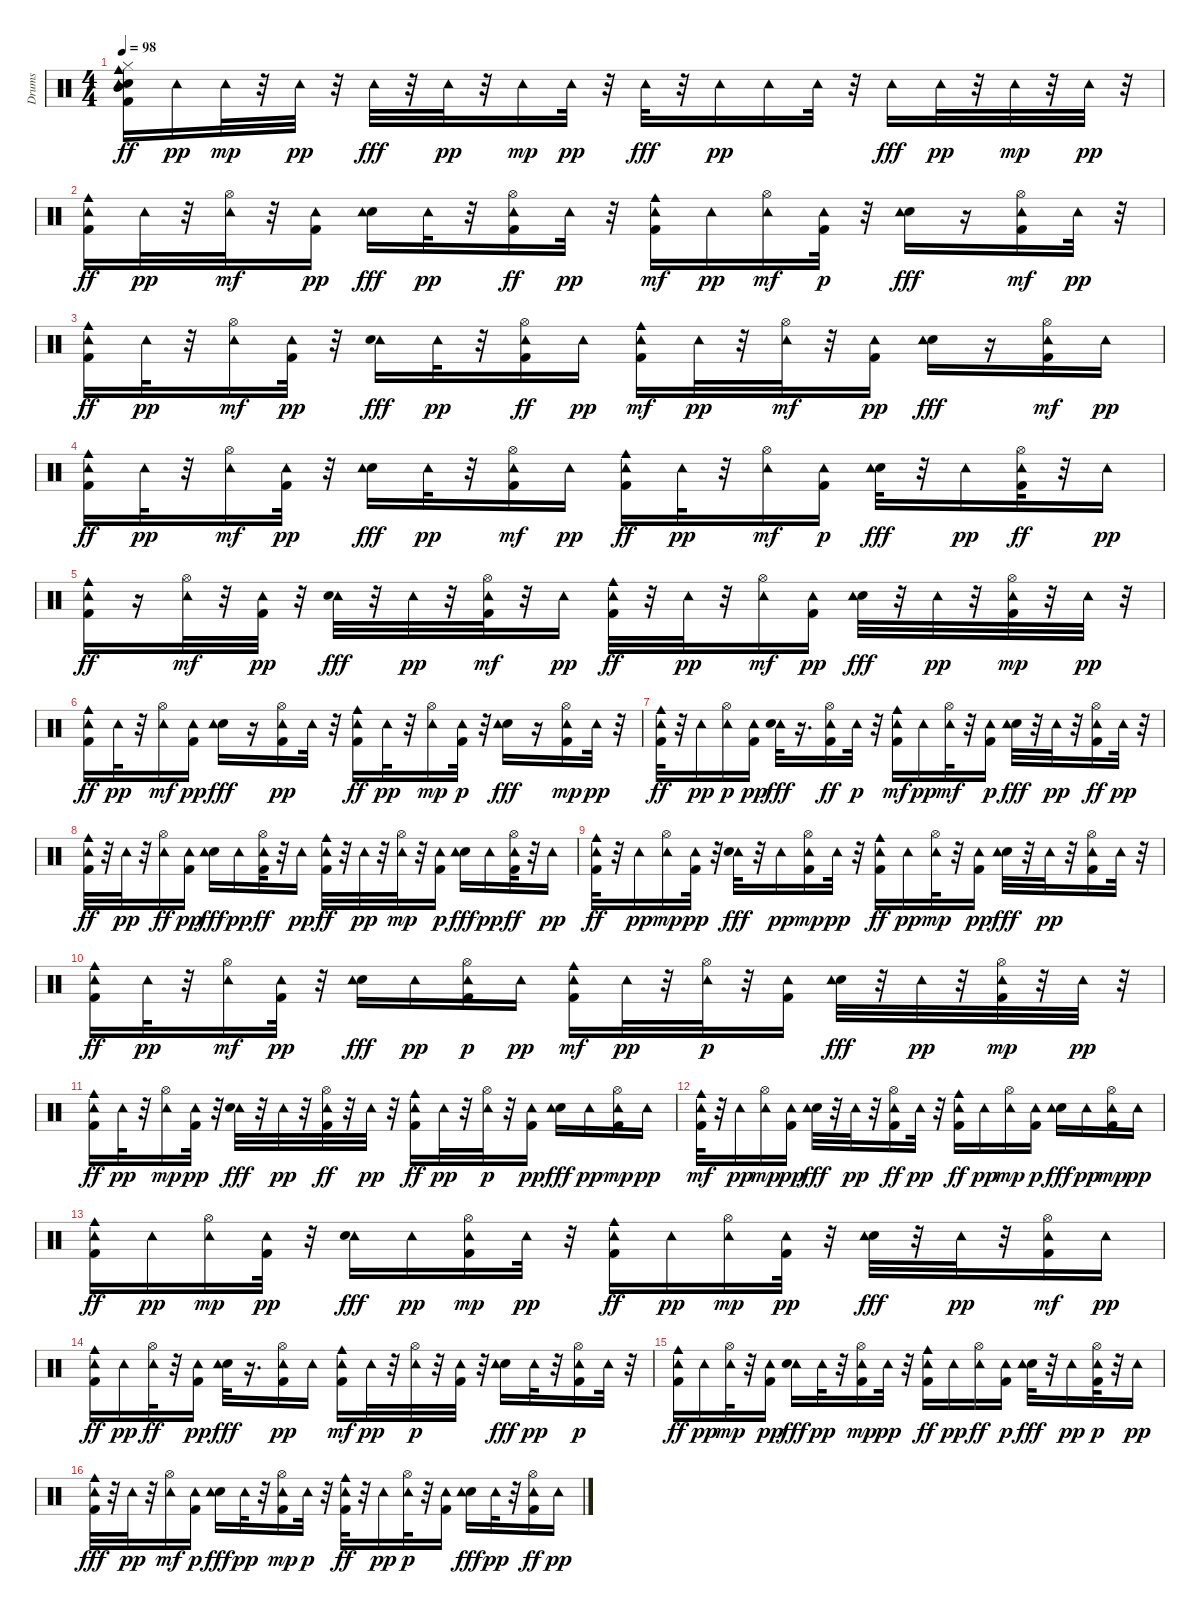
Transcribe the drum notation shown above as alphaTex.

\track ("Drums" "Drums") {instrument percussion}
\staff {score}
\articulation defaults
\ts (4 4)
\tempo 98
\clef neutral
\ks c
("Electric Snare (hit)" "Tambourine (hit)" "Kick (hit) 2" "Hi-Hat (closed)" "Cowbell medium (hit)" "Mid Tom (hit)").16{dy ff} "Tambourine (hit)".16{dy pp} "Tambourine (hit)".32{dy mp} r.32 "Tambourine (hit)".32{dy pp} r.32 "Tambourine (hit)".32{dy fff} r.32 "Tambourine (hit)".32{dy pp} r.32 "Tambourine (hit)".16{dy mp} "Tambourine (hit)".32{dy pp} r.32 "Tambourine (hit)".32{dy fff} r.32 "Tambourine (hit)".16{dy pp} "Tambourine (hit)".16 "Tambourine (hit)".32 r.32 "Tambourine (hit)".16{dy fff} "Tambourine (hit)".32{dy pp} r.32 "Tambourine (hit)".32{dy mp} r.32 "Tambourine (hit)".32{dy pp} r.32 |
("Tambourine (hit)" "Kick (hit) 2" "Cowbell medium (hit)").16{dy ff} "Tambourine (hit)".32{dy pp} r.32 ("Tambourine (hit)" "Hi-Hat (open)").32{dy mf} r.32 ("Kick (hit) 2" "Tambourine (hit)").16{dy pp} ("Electric Snare (hit)" "Tambourine (hit)").16{dy fff} "Tambourine (hit)".32{dy pp} r.32 ("Kick (hit) 2" "Tambourine (hit)" "Hi-Hat (open)").16{dy ff} "Tambourine (hit)".32{dy pp} r.32 ("Tambourine (hit)" "Kick (hit) 2" "Cowbell medium (hit)").16{dy mf} "Tambourine (hit)".16{dy pp} ("Hi-Hat (open)" "Tambourine (hit)").16{dy mf} ("Kick (hit) 2" "Tambourine (hit)").32{dy p} r.32 ("Electric Snare (hit)" "Tambourine (hit)").16{dy fff} r.16 ("Kick (hit) 2" "Hi-Hat (open)" "Tambourine (hit)").16{dy mf} "Tambourine (hit)".32{dy pp} r.32 |
("Tambourine (hit)" "Cowbell medium (hit)" "Kick (hit) 2").16{dy ff} "Tambourine (hit)".32{dy pp} r.32 ("Tambourine (hit)" "Hi-Hat (open)").16{dy mf} ("Kick (hit) 2" "Tambourine (hit)").32{dy pp} r.32 ("Tambourine (hit)" "Electric Snare (hit)").16{dy fff} "Tambourine (hit)".32{dy pp} r.32 ("Kick (hit) 2" "Tambourine (hit)" "Hi-Hat (open)").16{dy ff} "Tambourine (hit)".16{dy pp} ("Tambourine (hit)" "Kick (hit) 2" "Cowbell medium (hit)").16{dy mf} "Tambourine (hit)".32{dy pp} r.32 ("Tambourine (hit)" "Hi-Hat (open)").32{dy mf} r.32 ("Kick (hit) 2" "Tambourine (hit)").16{dy pp} ("Electric Snare (hit)" "Tambourine (hit)").16{dy fff} r.16 ("Kick (hit) 2" "Tambourine (hit)" "Hi-Hat (open)").16{dy mf} "Tambourine (hit)".16{dy pp} |
("Tambourine (hit)" "Kick (hit) 2" "Cowbell medium (hit)").16{dy ff} "Tambourine (hit)".32{dy pp} r.32 ("Tambourine (hit)" "Hi-Hat (open)").16{dy mf} ("Kick (hit) 2" "Tambourine (hit)").32{dy pp} r.32 ("Electric Snare (hit)" "Tambourine (hit)").16{dy fff} "Tambourine (hit)".32{dy pp} r.32 ("Kick (hit) 2" "Tambourine (hit)" "Hi-Hat (open)").16{dy mf} "Tambourine (hit)".16{dy pp} ("Tambourine (hit)" "Kick (hit) 2" "Cowbell medium (hit)").16{dy ff} "Tambourine (hit)".32{dy pp} r.32 ("Hi-Hat (open)" "Tambourine (hit)").16{dy mf} ("Kick (hit) 2" "Tambourine (hit)").16{dy p} ("Electric Snare (hit)" "Tambourine (hit)").32{dy fff} r.32 "Tambourine (hit)".16{dy pp} ("Kick (hit) 2" "Tambourine (hit)" "Hi-Hat (open)").32{dy ff} r.32 "Tambourine (hit)".16{dy pp} |
("Tambourine (hit)" "Kick (hit) 2" "Cowbell medium (hit)").16{dy ff} r.16 ("Tambourine (hit)" "Hi-Hat (open)").32{dy mf} r.32 ("Kick (hit) 2" "Tambourine (hit)").32{dy pp} r.32 ("Tambourine (hit)" "Electric Snare (hit)").32{dy fff} r.32 "Tambourine (hit)".32{dy pp} r.32 ("Kick (hit) 2" "Tambourine (hit)" "Hi-Hat (open)").32{dy mf} r.32 "Tambourine (hit)".16{dy pp} ("Tambourine (hit)" "Kick (hit) 2" "Cowbell medium (hit)").32{dy ff} r.32 "Tambourine (hit)".32{dy pp} r.32 ("Tambourine (hit)" "Hi-Hat (open)").16{dy mf} ("Kick (hit) 2" "Tambourine (hit)").16{dy pp} ("Electric Snare (hit)" "Tambourine (hit)").32{dy fff} r.32 "Tambourine (hit)".32{dy pp} r.32 ("Kick (hit) 2" "Tambourine (hit)" "Hi-Hat (open)").32{dy mp} r.32 "Tambourine (hit)".32{dy pp} r.32 |
("Tambourine (hit)" "Kick (hit) 2" "Cowbell medium (hit)").16{dy ff} "Tambourine (hit)".32{dy pp} r.32 ("Tambourine (hit)" "Hi-Hat (open)").16{dy mf} ("Kick (hit) 2" "Tambourine (hit)").16{dy pp} ("Electric Snare (hit)" "Tambourine (hit)").16{dy fff} r.16 ("Kick (hit) 2" "Tambourine (hit)" "Hi-Hat (open)").16{dy pp} "Tambourine (hit)".32 r.32 ("Tambourine (hit)" "Kick (hit) 2" "Cowbell medium (hit)").16{dy ff} "Tambourine (hit)".32{dy pp} r.32 ("Hi-Hat (open)" "Tambourine (hit)").16{dy mp} ("Kick (hit) 2" "Tambourine (hit)").32{dy p} r.32 ("Electric Snare (hit)" "Tambourine (hit)").16{dy fff} r.16 ("Kick (hit) 2" "Hi-Hat (open)" "Tambourine (hit)").16{dy mp} "Tambourine (hit)".32{dy pp} r.32 |
("Tambourine (hit)" "Kick (hit) 2" "Cowbell medium (hit)").32{dy ff} r.32 "Tambourine (hit)".16{dy pp} ("Tambourine (hit)" "Hi-Hat (open)").16{dy p} ("Kick (hit) 2" "Tambourine (hit)").16{dy pp} ("Tambourine (hit)" "Electric Snare (hit)").32{dy fff} r.16{d} ("Kick (hit) 2" "Tambourine (hit)" "Hi-Hat (open)").16{dy ff} "Tambourine (hit)".32{dy p} r.32 ("Tambourine (hit)" "Kick (hit) 2" "Cowbell medium (hit)").16{dy mf} "Tambourine (hit)".16{dy pp} ("Tambourine (hit)" "Hi-Hat (open)").32{dy mf} r.32 ("Kick (hit) 2" "Tambourine (hit)").16{dy p} ("Electric Snare (hit)" "Tambourine (hit)").32{dy fff} r.32 "Tambourine (hit)".32{dy pp} r.32 ("Kick (hit) 2" "Tambourine (hit)" "Hi-Hat (open)").16{dy ff} "Tambourine (hit)".32{dy pp} r.32 |
("Tambourine (hit)" "Kick (hit) 2" "Cowbell medium (hit)").32{dy ff} r.32 "Tambourine (hit)".32{dy pp} r.32 ("Tambourine (hit)" "Hi-Hat (open)").16{dy ff} ("Kick (hit) 2" "Tambourine (hit)").16{dy pp} ("Electric Snare (hit)" "Tambourine (hit)").16{dy fff} "Tambourine (hit)".16{dy pp} ("Kick (hit) 2" "Tambourine (hit)" "Hi-Hat (open)").32{dy ff} r.32 "Tambourine (hit)".16{dy pp} ("Tambourine (hit)" "Kick (hit) 2" "Cowbell medium (hit)").32{dy ff} r.32 "Tambourine (hit)".32{dy pp} r.32 ("Hi-Hat (open)" "Tambourine (hit)").32{dy mp} r.32 ("Kick (hit) 2" "Tambourine (hit)").16{dy p} ("Electric Snare (hit)" "Tambourine (hit)").16{dy fff} "Tambourine (hit)".16{dy pp} ("Kick (hit) 2" "Tambourine (hit)" "Hi-Hat (open)").32{dy ff} r.32 "Tambourine (hit)".16{dy pp} |
("Tambourine (hit)" "Kick (hit) 2" "Cowbell medium (hit)").32{dy ff} r.32 "Tambourine (hit)".16{dy pp} ("Tambourine (hit)" "Hi-Hat (open)").16{dy mp} ("Kick (hit) 2" "Tambourine (hit)").32{dy pp} r.32 ("Tambourine (hit)" "Electric Snare (hit)").32{dy fff} r.32 "Tambourine (hit)".16{dy pp} ("Kick (hit) 2" "Tambourine (hit)" "Hi-Hat (open)").16{dy mp} "Tambourine (hit)".32{dy pp} r.32 ("Tambourine (hit)" "Kick (hit) 2" "Cowbell medium (hit)").16{dy ff} "Tambourine (hit)".16{dy pp} ("Tambourine (hit)" "Hi-Hat (open)").32{dy mp} r.32 ("Kick (hit) 2" "Tambourine (hit)").16{dy pp} ("Electric Snare (hit)" "Tambourine (hit)").32{dy fff} r.32 "Tambourine (hit)".32{dy pp} r.32 ("Kick (hit) 2" "Tambourine (hit)" "Hi-Hat (open)").16 "Tambourine (hit)".32 r.32 |
("Tambourine (hit)" "Kick (hit) 2" "Cowbell medium (hit)").16{dy ff} "Tambourine (hit)".32{dy pp} r.32 ("Tambourine (hit)" "Hi-Hat (open)").16{dy mf} ("Kick (hit) 2" "Tambourine (hit)").32{dy pp} r.32 ("Electric Snare (hit)" "Tambourine (hit)").16{dy fff} "Tambourine (hit)".16{dy pp} ("Kick (hit) 2" "Tambourine (hit)" "Hi-Hat (open)").16{dy p} "Tambourine (hit)".16{dy pp} ("Tambourine (hit)" "Kick (hit) 2" "Cowbell medium (hit)").16{dy mf} "Tambourine (hit)".32{dy pp} r.32 ("Hi-Hat (open)" "Tambourine (hit)").32{dy p} r.32 ("Kick (hit) 2" "Tambourine (hit)").16 ("Electric Snare (hit)" "Tambourine (hit)").32{dy fff} r.32 "Tambourine (hit)".32{dy pp} r.32 ("Kick (hit) 2" "Hi-Hat (open)" "Tambourine (hit)").32{dy mp} r.32 "Tambourine (hit)".32{dy pp} r.32 |
("Tambourine (hit)" "Kick (hit) 2" "Cowbell medium (hit)").16{dy ff} "Tambourine (hit)".32{dy pp} r.32 ("Tambourine (hit)" "Hi-Hat (open)").16{dy mp} ("Kick (hit) 2" "Tambourine (hit)").32{dy pp} r.32 ("Tambourine (hit)" "Electric Snare (hit)").32{dy fff} r.32 "Tambourine (hit)".32{dy pp} r.32 ("Kick (hit) 2" "Tambourine (hit)" "Hi-Hat (open)").32{dy ff} r.32 "Tambourine (hit)".32{dy pp} r.32 ("Tambourine (hit)" "Kick (hit) 2" "Cowbell medium (hit)").16{dy ff} "Tambourine (hit)".32{dy pp} r.32 ("Tambourine (hit)" "Hi-Hat (open)").32{dy p} r.32 ("Kick (hit) 2" "Tambourine (hit)").16{dy pp} ("Electric Snare (hit)" "Tambourine (hit)").16{dy fff} "Tambourine (hit)".16{dy pp} ("Kick (hit) 2" "Hi-Hat (open)" "Tambourine (hit)").16{dy mp} "Tambourine (hit)".16{dy pp} |
("Tambourine (hit)" "Kick (hit) 2" "Cowbell medium (hit)").32{dy mf} r.32 "Tambourine (hit)".16{dy pp} ("Tambourine (hit)" "Hi-Hat (open)").16{dy mp} ("Kick (hit) 2" "Tambourine (hit)").16{dy pp} ("Electric Snare (hit)" "Tambourine (hit)").32{dy fff} r.32 "Tambourine (hit)".32{dy pp} r.32 ("Kick (hit) 2" "Tambourine (hit)" "Hi-Hat (open)").16{dy ff} "Tambourine (hit)".32{dy pp} r.32 ("Tambourine (hit)" "Kick (hit) 2" "Cowbell medium (hit)").16{dy ff} "Tambourine (hit)".16{dy pp} ("Hi-Hat (open)" "Tambourine (hit)").16{dy mp} ("Kick (hit) 2" "Tambourine (hit)").16{dy p} ("Electric Snare (hit)" "Tambourine (hit)").16{dy fff} "Tambourine (hit)".16{dy pp} ("Kick (hit) 2" "Tambourine (hit)" "Hi-Hat (open)").16{dy mp} "Tambourine (hit)".16{dy pp} |
("Tambourine (hit)" "Kick (hit) 2" "Cowbell medium (hit)").16{dy ff} "Tambourine (hit)".16{dy pp} ("Tambourine (hit)" "Hi-Hat (open)").16{dy mp} ("Kick (hit) 2" "Tambourine (hit)").32{dy pp} r.32 ("Tambourine (hit)" "Electric Snare (hit)").16{dy fff} "Tambourine (hit)".16{dy pp} ("Kick (hit) 2" "Tambourine (hit)" "Hi-Hat (open)").16{dy mp} "Tambourine (hit)".32{dy pp} r.32 ("Tambourine (hit)" "Kick (hit) 2" "Cowbell medium (hit)").16{dy ff} "Tambourine (hit)".16{dy pp} ("Tambourine (hit)" "Hi-Hat (open)").16{dy mp} ("Kick (hit) 2" "Tambourine (hit)").32{dy pp} r.32 ("Electric Snare (hit)" "Tambourine (hit)").32{dy fff} r.32 "Tambourine (hit)".32{dy pp} r.32 ("Kick (hit) 2" "Tambourine (hit)" "Hi-Hat (open)").16{dy mf} "Tambourine (hit)".16{dy pp} |
("Tambourine (hit)" "Kick (hit) 2" "Cowbell medium (hit)").16{dy ff} "Tambourine (hit)".16{dy pp} ("Tambourine (hit)" "Hi-Hat (open)").32{dy ff} r.32 ("Kick (hit) 2" "Tambourine (hit)").16{dy pp} ("Electric Snare (hit)" "Tambourine (hit)").32{dy fff} r.16{d} ("Kick (hit) 2" "Tambourine (hit)" "Hi-Hat (open)").16{dy pp} "Tambourine (hit)".16 ("Tambourine (hit)" "Kick (hit) 2" "Cowbell medium (hit)").16{dy mf} "Tambourine (hit)".32{dy pp} r.32 ("Hi-Hat (open)" "Tambourine (hit)").32{dy p} r.32 ("Kick (hit) 2" "Tambourine (hit)").32 r.32 ("Electric Snare (hit)" "Tambourine (hit)").16{dy fff} "Tambourine (hit)".32{dy pp} r.32 ("Kick (hit) 2" "Tambourine (hit)" "Hi-Hat (open)").16{dy p} "Tambourine (hit)".32 r.32 |
("Tambourine (hit)" "Cowbell medium (hit)" "Kick (hit) 2").16{dy ff} "Tambourine (hit)".16{dy pp} ("Tambourine (hit)" "Hi-Hat (open)").32{dy mp} r.32 ("Kick (hit) 2" "Tambourine (hit)").16{dy pp} ("Tambourine (hit)" "Electric Snare (hit)").16{dy fff} "Tambourine (hit)".32{dy pp} r.32 ("Kick (hit) 2" "Tambourine (hit)" "Hi-Hat (open)").16{dy mp} "Tambourine (hit)".32{dy pp} r.32 ("Tambourine (hit)" "Kick (hit) 2" "Cowbell medium (hit)").16{dy ff} "Tambourine (hit)".16{dy pp} ("Tambourine (hit)" "Hi-Hat (open)").16{dy ff} ("Kick (hit) 2" "Tambourine (hit)").16{dy p} ("Electric Snare (hit)" "Tambourine (hit)").32{dy fff} r.32 "Tambourine (hit)".16{dy pp} ("Kick (hit) 2" "Hi-Hat (open)" "Tambourine (hit)").32{dy p} r.32 "Tambourine (hit)".16{dy pp} |
("Tambourine (hit)" "Kick (hit) 2" "Cowbell medium (hit)").32{dy fff} r.32 "Tambourine (hit)".32{dy pp} r.32 ("Tambourine (hit)" "Hi-Hat (open)").16{dy mf} ("Kick (hit) 2" "Tambourine (hit)").16{dy p} ("Electric Snare (hit)" "Tambourine (hit)").16{dy fff} "Tambourine (hit)".32{dy pp} r.32 ("Kick (hit) 2" "Tambourine (hit)" "Hi-Hat (open)").16{dy mp} "Tambourine (hit)".32{dy p} r.32 ("Tambourine (hit)" "Kick (hit) 2" "Cowbell medium (hit)").32{dy ff} r.32 "Tambourine (hit)".16{dy pp} ("Hi-Hat (open)" "Tambourine (hit)").32{dy p} r.32 ("Kick (hit) 2" "Tambourine (hit)").16 ("Electric Snare (hit)" "Tambourine (hit)").16{dy fff} "Tambourine (hit)".32{dy pp} r.32 ("Kick (hit) 2" "Tambourine (hit)" "Hi-Hat (open)").16{dy ff} "Tambourine (hit)".16{dy pp}
